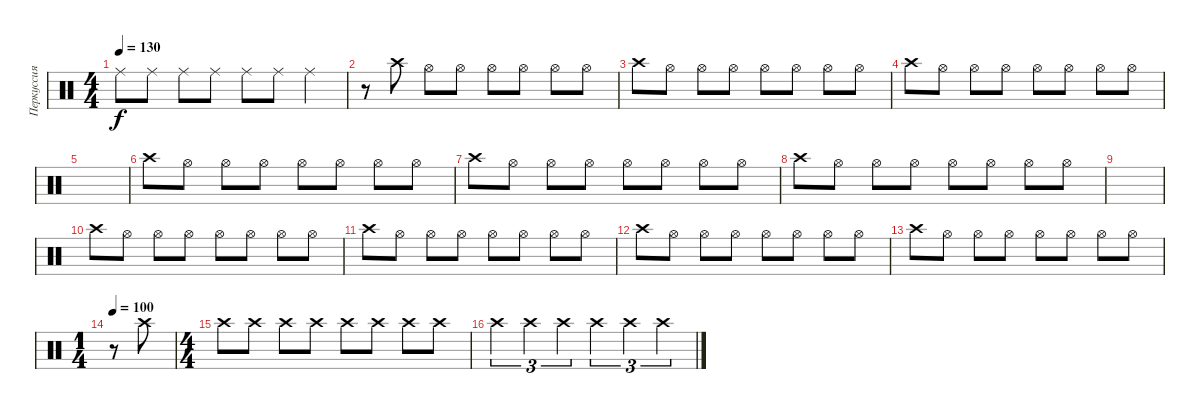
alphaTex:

\track ("Перкуссия" "Перкуссия") {instrument percussion}
\staff {score}
\articulation defaults
\ts (4 4)
\tempo 130
\clef neutral
\ks c "Ride (middle)".8{dy f} "Ride (middle)".8 "Ride (middle)".8 "Ride (middle)".8 "Ride (middle)".8 "Ride (middle)".8 "Ride (middle)".4
|
r.8 "Crash high (hit)".8 "Hi-Hat (open)".8 "Hi-Hat (open)".8 "Hi-Hat (open)".8 "Hi-Hat (open)".8 "Hi-Hat (open)".8 "Hi-Hat (open)".8 |
"Crash high (hit)".8 "Hi-Hat (open)".8 "Hi-Hat (open)".8 "Hi-Hat (open)".8 "Hi-Hat (open)".8 "Hi-Hat (open)".8 "Hi-Hat (open)".8 "Hi-Hat (open)".8 |
"Crash high (hit)".8 "Hi-Hat (open)".8 "Hi-Hat (open)".8 "Hi-Hat (open)".8 "Hi-Hat (open)".8 "Hi-Hat (open)".8 "Hi-Hat (open)".8 "Hi-Hat (open)".8 |
|
"Crash high (hit)".8 "Hi-Hat (open)".8 "Hi-Hat (open)".8 "Hi-Hat (open)".8 "Hi-Hat (open)".8 "Hi-Hat (open)".8 "Hi-Hat (open)".8 "Hi-Hat (open)".8 |
"Crash high (hit)".8 "Hi-Hat (open)".8 "Hi-Hat (open)".8 "Hi-Hat (open)".8 "Hi-Hat (open)".8 "Hi-Hat (open)".8 "Hi-Hat (open)".8 "Hi-Hat (open)".8 |
"Crash high (hit)".8 "Hi-Hat (open)".8 "Hi-Hat (open)".8 "Hi-Hat (open)".8 "Hi-Hat (open)".8 "Hi-Hat (open)".8 "Hi-Hat (open)".8 "Hi-Hat (open)".8 |
|
"Crash high (hit)".8 "Hi-Hat (open)".8 "Hi-Hat (open)".8 "Hi-Hat (open)".8 "Hi-Hat (open)".8 "Hi-Hat (open)".8 "Hi-Hat (open)".8 "Hi-Hat (open)".8 |
"Crash high (hit)".8 "Hi-Hat (open)".8 "Hi-Hat (open)".8 "Hi-Hat (open)".8 "Hi-Hat (open)".8 "Hi-Hat (open)".8 "Hi-Hat (open)".8 "Hi-Hat (open)".8 |
"Crash high (hit)".8 "Hi-Hat (open)".8 "Hi-Hat (open)".8 "Hi-Hat (open)".8 "Hi-Hat (open)".8 "Hi-Hat (open)".8 "Hi-Hat (open)".8 "Hi-Hat (open)".8 |
"Crash high (hit)".8 "Hi-Hat (open)".8 "Hi-Hat (open)".8 "Hi-Hat (open)".8 "Hi-Hat (open)".8 "Hi-Hat (open)".8 "Hi-Hat (open)".8 "Hi-Hat (open)".8 |
\ts (1 4)
\tempo 100
r.8 "Crash high (hit)".8 |
\ts (4 4)
"Crash high (hit)".8 "Crash high (hit)".8 "Crash high (hit)".8 "Crash high (hit)".8 "Crash high (hit)".8 "Crash high (hit)".8 "Crash high (hit)".8 "Crash high (hit)".8 |
"Crash high (hit)".4{tu (3 2)} "Crash high (hit)".4{tu (3 2)} "Crash high (hit)".4{tu (3 2)} "Crash high (hit)".4{tu (3 2)} "Crash high (hit)".4{tu (3 2)} "Crash high (hit)".4{tu (3 2)}
